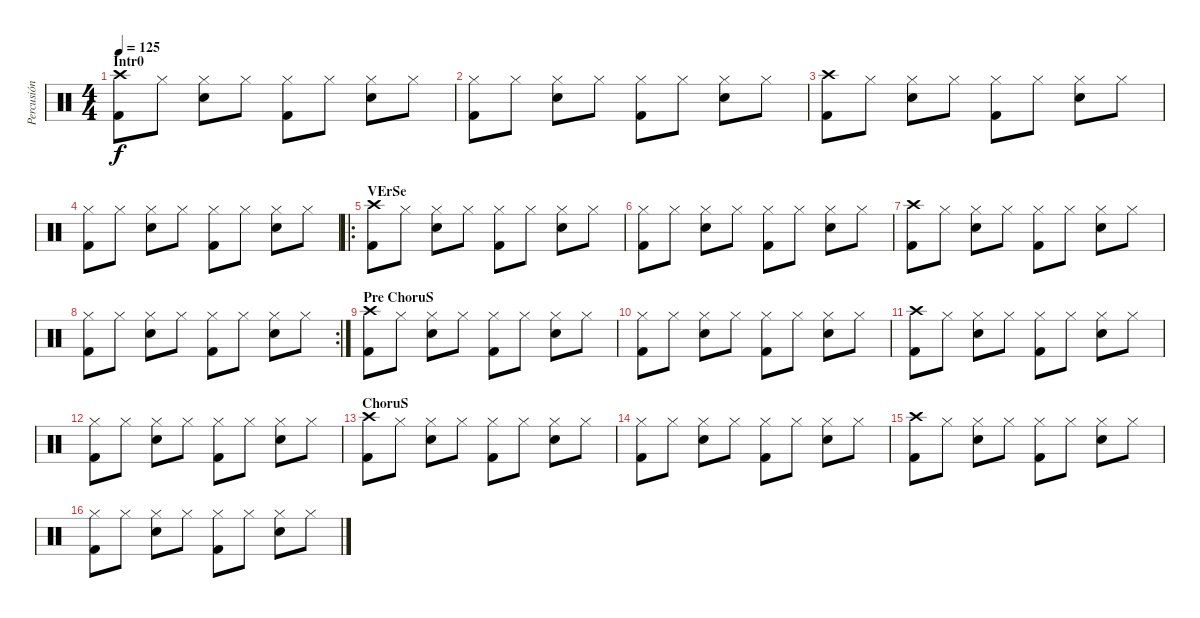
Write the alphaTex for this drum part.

\track ("Percusión" "Percusión") {instrument percussion}
\staff {score}
\articulation defaults
\ts (4 4)
\section ("" "Intr0")
\tempo 125
\clef neutral
\ks c
("Crash high (hit)" "Kick (hit) 2").8{dy f} "Hi-Hat (closed)".8 ("Hi-Hat (closed)" "Electric Snare (hit)").8 "Hi-Hat (closed)".8 ("Hi-Hat (closed)" "Kick (hit) 2").8 "Hi-Hat (closed)".8 ("Hi-Hat (closed)" "Electric Snare (hit)").8 "Hi-Hat (closed)".8 |
("Hi-Hat (closed)" "Kick (hit) 2").8 "Hi-Hat (closed)".8 ("Hi-Hat (closed)" "Electric Snare (hit)").8 "Hi-Hat (closed)".8 ("Hi-Hat (closed)" "Kick (hit) 2").8 "Hi-Hat (closed)".8 ("Hi-Hat (closed)" "Electric Snare (hit)").8 "Hi-Hat (closed)".8 |
("Crash high (hit)" "Kick (hit) 2").8 "Hi-Hat (closed)".8 ("Hi-Hat (closed)" "Electric Snare (hit)").8 "Hi-Hat (closed)".8 ("Hi-Hat (closed)" "Kick (hit) 2").8 "Hi-Hat (closed)".8 ("Hi-Hat (closed)" "Electric Snare (hit)").8 "Hi-Hat (closed)".8 |
("Hi-Hat (closed)" "Kick (hit) 2").8 "Hi-Hat (closed)".8 ("Hi-Hat (closed)" "Electric Snare (hit)").8 "Hi-Hat (closed)".8 ("Hi-Hat (closed)" "Kick (hit) 2").8 "Hi-Hat (closed)".8 ("Hi-Hat (closed)" "Electric Snare (hit)").8 "Hi-Hat (closed)".8 |
\ro
\section ("" "VErSe")
("Crash high (hit)" "Kick (hit) 2").8 "Hi-Hat (closed)".8 ("Hi-Hat (closed)" "Electric Snare (hit)").8 "Hi-Hat (closed)".8 ("Hi-Hat (closed)" "Kick (hit) 2").8 "Hi-Hat (closed)".8 ("Hi-Hat (closed)" "Electric Snare (hit)").8 "Hi-Hat (closed)".8 |
("Hi-Hat (closed)" "Kick (hit) 2").8 "Hi-Hat (closed)".8 ("Hi-Hat (closed)" "Electric Snare (hit)").8 "Hi-Hat (closed)".8 ("Hi-Hat (closed)" "Kick (hit) 2").8 "Hi-Hat (closed)".8 ("Hi-Hat (closed)" "Electric Snare (hit)").8 "Hi-Hat (closed)".8 |
("Crash high (hit)" "Kick (hit) 2").8 "Hi-Hat (closed)".8 ("Hi-Hat (closed)" "Electric Snare (hit)").8 "Hi-Hat (closed)".8 ("Hi-Hat (closed)" "Kick (hit) 2").8 "Hi-Hat (closed)".8 ("Hi-Hat (closed)" "Electric Snare (hit)").8 "Hi-Hat (closed)".8 |
\rc 2
("Hi-Hat (closed)" "Kick (hit) 2").8 "Hi-Hat (closed)".8 ("Hi-Hat (closed)" "Electric Snare (hit)").8 "Hi-Hat (closed)".8 ("Hi-Hat (closed)" "Kick (hit) 2").8 "Hi-Hat (closed)".8 ("Hi-Hat (closed)" "Electric Snare (hit)").8 "Hi-Hat (closed)".8 |
\section ("" "Pre ChoruS")
("Crash high (hit)" "Kick (hit) 2").8 "Hi-Hat (closed)".8 ("Hi-Hat (closed)" "Electric Snare (hit)").8 "Hi-Hat (closed)".8 ("Hi-Hat (closed)" "Kick (hit) 2").8 "Hi-Hat (closed)".8 ("Hi-Hat (closed)" "Electric Snare (hit)").8 "Hi-Hat (closed)".8 |
("Hi-Hat (closed)" "Kick (hit) 2").8 "Hi-Hat (closed)".8 ("Hi-Hat (closed)" "Electric Snare (hit)").8 "Hi-Hat (closed)".8 ("Hi-Hat (closed)" "Kick (hit) 2").8 "Hi-Hat (closed)".8 ("Hi-Hat (closed)" "Electric Snare (hit)").8 "Hi-Hat (closed)".8 |
("Crash high (hit)" "Kick (hit) 2").8 "Hi-Hat (closed)".8 ("Hi-Hat (closed)" "Electric Snare (hit)").8 "Hi-Hat (closed)".8 ("Hi-Hat (closed)" "Kick (hit) 2").8 "Hi-Hat (closed)".8 ("Hi-Hat (closed)" "Electric Snare (hit)").8 "Hi-Hat (closed)".8 |
("Hi-Hat (closed)" "Kick (hit) 2").8 "Hi-Hat (closed)".8 ("Hi-Hat (closed)" "Electric Snare (hit)").8 "Hi-Hat (closed)".8 ("Hi-Hat (closed)" "Kick (hit) 2").8 "Hi-Hat (closed)".8 ("Hi-Hat (closed)" "Electric Snare (hit)").8 "Hi-Hat (closed)".8 |
\section ("" "ChoruS")
("Crash high (hit)" "Kick (hit) 2").8 "Hi-Hat (closed)".8 ("Hi-Hat (closed)" "Electric Snare (hit)").8 "Hi-Hat (closed)".8 ("Hi-Hat (closed)" "Kick (hit) 2").8 "Hi-Hat (closed)".8 ("Hi-Hat (closed)" "Electric Snare (hit)").8 "Hi-Hat (closed)".8 |
("Hi-Hat (closed)" "Kick (hit) 2").8 "Hi-Hat (closed)".8 ("Hi-Hat (closed)" "Electric Snare (hit)").8 "Hi-Hat (closed)".8 ("Hi-Hat (closed)" "Kick (hit) 2").8 "Hi-Hat (closed)".8 ("Hi-Hat (closed)" "Electric Snare (hit)").8 "Hi-Hat (closed)".8 |
("Crash high (hit)" "Kick (hit) 2").8 "Hi-Hat (closed)".8 ("Hi-Hat (closed)" "Electric Snare (hit)").8 "Hi-Hat (closed)".8 ("Hi-Hat (closed)" "Kick (hit) 2").8 "Hi-Hat (closed)".8 ("Hi-Hat (closed)" "Electric Snare (hit)").8 "Hi-Hat (closed)".8 |
("Hi-Hat (closed)" "Kick (hit) 2").8 "Hi-Hat (closed)".8 ("Hi-Hat (closed)" "Electric Snare (hit)").8 "Hi-Hat (closed)".8 ("Hi-Hat (closed)" "Kick (hit) 2").8 "Hi-Hat (closed)".8 ("Hi-Hat (closed)" "Electric Snare (hit)").8 "Hi-Hat (closed)".8
